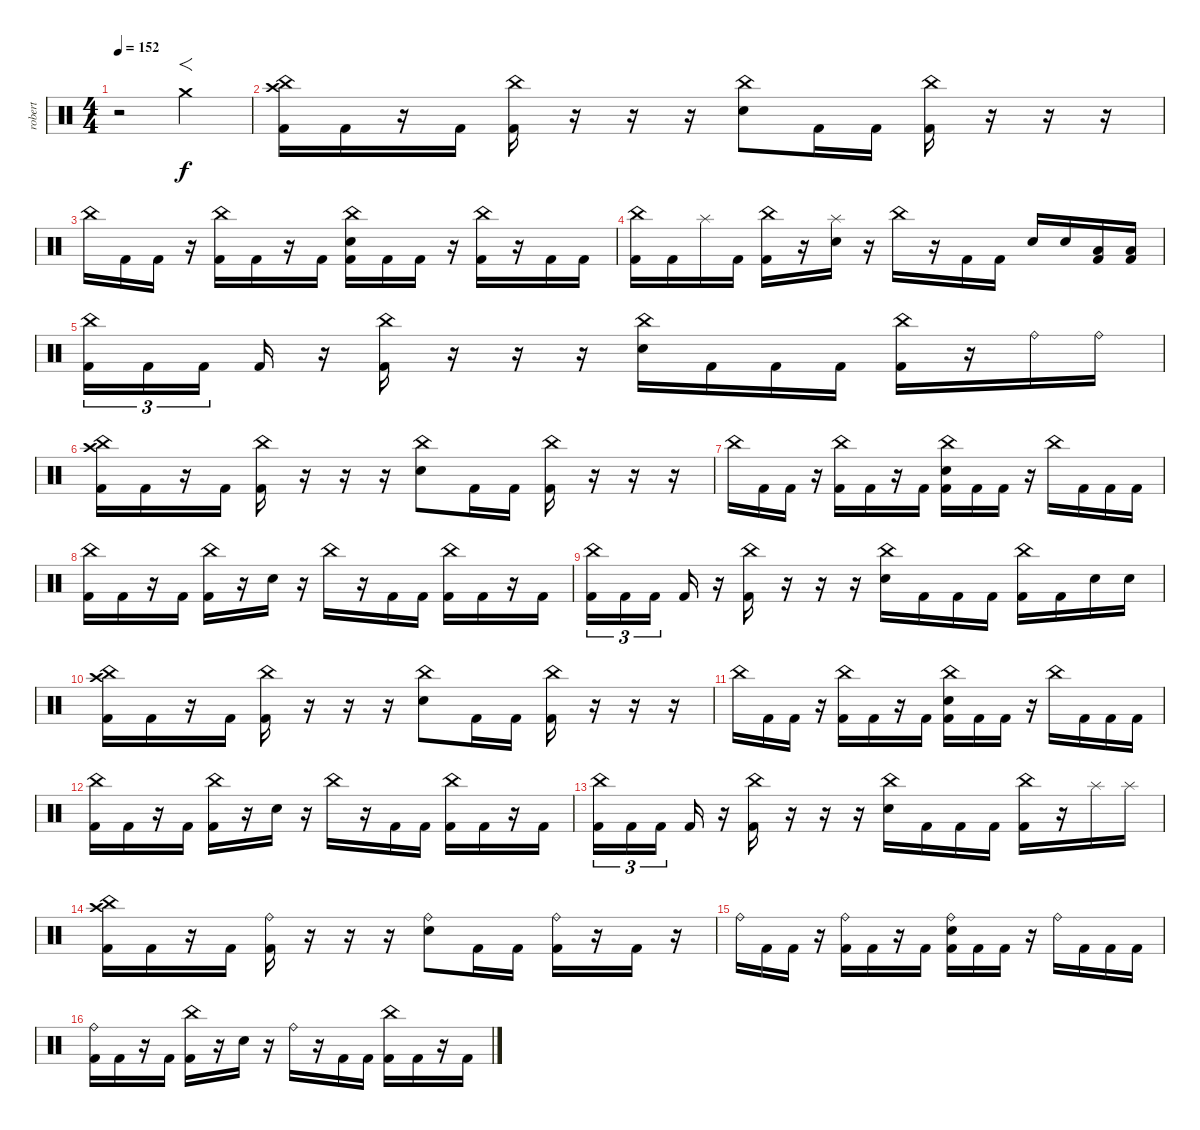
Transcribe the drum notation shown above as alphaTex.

\track ("robert" "robert") {instrument percussion}
\staff {score}
\articulation defaults
\ts (4 4)
\tempo 152
\clef neutral
\ks c
r.2{dy f} "Crash medium (hit)".2{f} |
("Crash high (hit)" "China (hit)" "Kick (hit) 2").16 "Kick (hit) 2".16 r.16 "Kick (hit) 2".16 ("China (hit)" "Kick (hit) 2").16 r.16 r.16 r.16 ("China (hit)" "Electric Snare (hit)").8 "Kick (hit) 2".16 "Kick (hit) 2".16 ("China (hit)" "Kick (hit) 2").16 r.16 r.16 r.16 |
"China (hit)".16 "Kick (hit) 2".16 "Kick (hit) 2".16 r.16 ("China (hit)" "Kick (hit) 2").16 "Kick (hit) 2".16 r.16 "Kick (hit) 2".16 ("China (hit)" "Electric Snare (hit)" "Kick (hit) 2").16 "Kick (hit) 2".16 "Kick (hit) 2".16 r.16 ("China (hit)" "Kick (hit) 2").16 r.16 "Kick (hit) 2".16{beam merge} "Kick (hit) 2".16 |
("China (hit)" "Kick (hit) 2").16 "Kick (hit) 2".16 "Splash (hit)".16 "Kick (hit) 2".16 ("China (hit)" "Kick (hit) 2").16 r.16 ("Splash (hit)" "Electric Snare (hit)").16 r.16 "China (hit)".16 r.16 "Kick (hit) 2".16 "Kick (hit) 2".16 "Electric Snare (hit)".16 "Electric Snare (hit)".16 ("Kick (hit) 2" "Low Tom (hit)").16 ("Kick (hit) 2" "Low Tom (hit)").16 |
("China (hit)" "Kick (hit) 2").16{tu (3 2)} "Kick (hit) 2".16{tu (3 2)} "Kick (hit) 2".16{tu (3 2) beam splitsecondary} "Kick (hit) 2".16 r.16 ("China (hit)" "Kick (hit) 2").16 r.16 r.16 r.16 ("China (hit)" "Electric Snare (hit)").16 "Kick (hit) 2".16 "Kick (hit) 2".16 "Kick (hit) 2".16 ("China (hit)" "Kick (hit) 2").16 r.16 "Ride (bell)".16 "Ride (bell)".16 |
("Crash high (hit)" "China (hit)" "Kick (hit) 2").16 "Kick (hit) 2".16 r.16 "Kick (hit) 2".16 ("China (hit)" "Kick (hit) 2").16 r.16 r.16 r.16 ("China (hit)" "Electric Snare (hit)").8 "Kick (hit) 2".16 "Kick (hit) 2".16 ("China (hit)" "Kick (hit) 2").16 r.16 r.16 r.16 |
"China (hit)".16 "Kick (hit) 2".16 "Kick (hit) 2".16 r.16 ("China (hit)" "Kick (hit) 2").16 "Kick (hit) 2".16 r.16 "Kick (hit) 2".16 ("China (hit)" "Electric Snare (hit)" "Kick (hit) 2").16 "Kick (hit) 2".16 "Kick (hit) 2".16 r.16 "China (hit)".16 "Kick (hit) 2".16 "Kick (hit) 2".16 "Kick (hit) 2".16 |
("China (hit)" "Kick (hit) 2").16 "Kick (hit) 2".16 r.16 "Kick (hit) 2".16 ("China (hit)" "Kick (hit) 2").16 r.16 "Electric Snare (hit)".16 r.16 "China (hit)".16 r.16 "Kick (hit) 2".16 "Kick (hit) 2".16 ("China (hit)" "Kick (hit) 2").16 "Kick (hit) 2".16 r.16 "Kick (hit) 2".16 |
("China (hit)" "Kick (hit) 2").16{tu (3 2)} "Kick (hit) 2".16{tu (3 2)} "Kick (hit) 2".16{tu (3 2) beam splitsecondary} "Kick (hit) 2".16 r.16 ("China (hit)" "Kick (hit) 2").16 r.16 r.16 r.16 ("China (hit)" "Electric Snare (hit)").16 "Kick (hit) 2".16 "Kick (hit) 2".16 "Kick (hit) 2".16 ("China (hit)" "Kick (hit) 2").16 "Kick (hit) 2".16 "Electric Snare (hit)".16 "Electric Snare (hit)".16 |
("Crash high (hit)" "China (hit)" "Kick (hit) 2").16 "Kick (hit) 2".16 r.16 "Kick (hit) 2".16 ("China (hit)" "Kick (hit) 2").16 r.16 r.16 r.16 ("China (hit)" "Electric Snare (hit)").8 "Kick (hit) 2".16 "Kick (hit) 2".16 ("China (hit)" "Kick (hit) 2").16 r.16 r.16 r.16 |
"China (hit)".16 "Kick (hit) 2".16 "Kick (hit) 2".16 r.16 ("China (hit)" "Kick (hit) 2").16 "Kick (hit) 2".16 r.16 "Kick (hit) 2".16 ("China (hit)" "Electric Snare (hit)" "Kick (hit) 2").16 "Kick (hit) 2".16 "Kick (hit) 2".16 r.16 "China (hit)".16 "Kick (hit) 2".16 "Kick (hit) 2".16 "Kick (hit) 2".16 |
("China (hit)" "Kick (hit) 2").16 "Kick (hit) 2".16 r.16 "Kick (hit) 2".16 ("China (hit)" "Kick (hit) 2").16 r.16 "Electric Snare (hit)".16 r.16 "China (hit)".16 r.16 "Kick (hit) 2".16 "Kick (hit) 2".16 ("China (hit)" "Kick (hit) 2").16 "Kick (hit) 2".16 r.16 "Kick (hit) 2".16 |
("China (hit)" "Kick (hit) 2").16{tu (3 2)} "Kick (hit) 2".16{tu (3 2)} "Kick (hit) 2".16{tu (3 2) beam splitsecondary} "Kick (hit) 2".16 r.16 ("China (hit)" "Kick (hit) 2").16 r.16 r.16 r.16 ("China (hit)" "Electric Snare (hit)").16 "Kick (hit) 2".16 "Kick (hit) 2".16 "Kick (hit) 2".16 ("China (hit)" "Kick (hit) 2").16 r.16 "Splash (hit)".16 "Splash (hit)".16 |
("Crash high (hit)" "China (hit)" "Kick (hit) 2").16 "Kick (hit) 2".16 r.16 "Kick (hit) 2".16 ("Ride (bell)" "Kick (hit) 2").16 r.16 r.16 r.16 ("Ride (bell)" "Electric Snare (hit)").8 "Kick (hit) 2".16 "Kick (hit) 2".16 ("Ride (bell)" "Kick (hit) 2").16 r.16 "Kick (hit) 2".16 r.16 |
"Ride (bell)".16 "Kick (hit) 2".16 "Kick (hit) 2".16 r.16 ("Ride (bell)" "Kick (hit) 2").16 "Kick (hit) 2".16 r.16 "Kick (hit) 2".16 ("Ride (bell)" "Electric Snare (hit)" "Kick (hit) 2").16 "Kick (hit) 2".16 "Kick (hit) 2".16 r.16 "Ride (bell)".16 "Kick (hit) 2".16 "Kick (hit) 2".16 "Kick (hit) 2".16 |
("Ride (bell)" "Kick (hit) 2").16 "Kick (hit) 2".16 r.16 "Kick (hit) 2".16 ("China (hit)" "Kick (hit) 2").16 r.16 "Electric Snare (hit)".16 r.16 "Ride (bell)".16 r.16 "Kick (hit) 2".16 "Kick (hit) 2".16 ("China (hit)" "Kick (hit) 2").16 "Kick (hit) 2".16 r.16 "Kick (hit) 2".16
